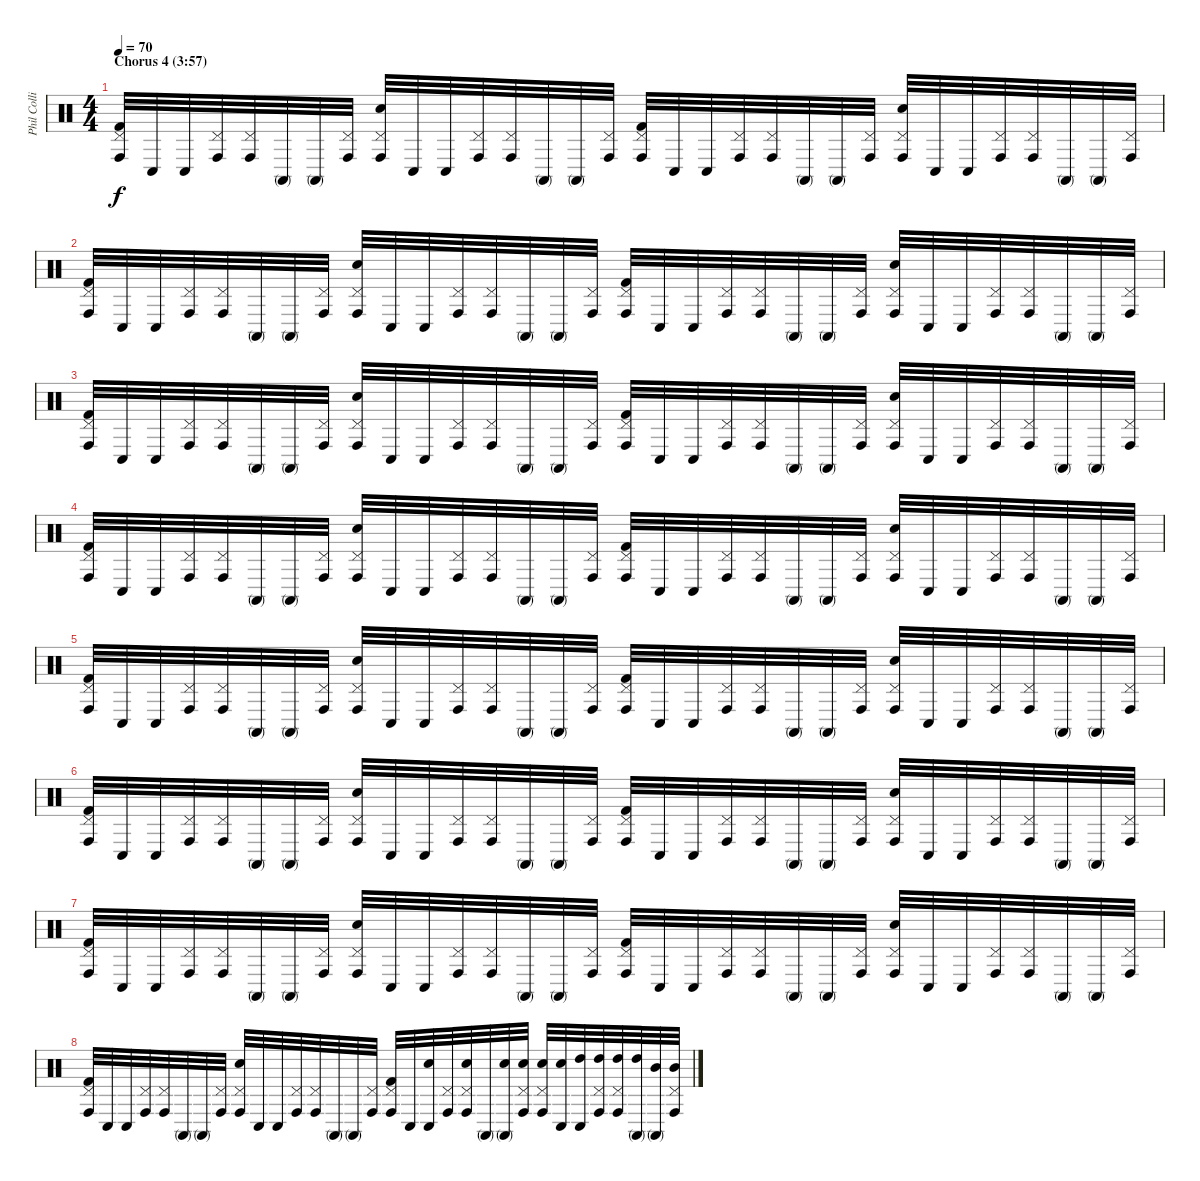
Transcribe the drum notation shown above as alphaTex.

\track ("Phil Collins (drums)" "Phil Colli") {instrument percussion}
\staff {score}
\articulation defaults
\ts (4 4)
\section ("" "Chorus 4 (3:57)")
\tempo 70
\clef neutral
\ks c
("Conga high (hit)" "Pedal Hi-Hat (hit)" "Kick (hit) 2").32{dy f} "Conga low (hit)".32 "Conga low (hit)".32 ("Conga high (hit)" "Pedal Hi-Hat (hit)").32 ("Conga high (hit)" "Pedal Hi-Hat (hit)").32 "Conga high (mute)".32 "Conga high (mute)".32 ("Conga high (hit)" "Pedal Hi-Hat (hit)").32 ("Conga high (hit)" "Pedal Hi-Hat (hit)" "Electric Snare (hit)").32 "Conga low (hit)".32 "Conga low (hit)".32 ("Conga high (hit)" "Pedal Hi-Hat (hit)").32 ("Conga high (hit)" "Pedal Hi-Hat (hit)").32 "Conga high (mute)".32 "Conga high (mute)".32 ("Conga high (hit)" "Pedal Hi-Hat (hit)").32 ("Conga high (hit)" "Pedal Hi-Hat (hit)" "Kick (hit) 2").32 "Conga low (hit)".32 "Conga low (hit)".32 ("Conga high (hit)" "Pedal Hi-Hat (hit)").32 ("Conga high (hit)" "Pedal Hi-Hat (hit)").32 "Conga high (mute)".32 "Conga high (mute)".32 ("Conga high (hit)" "Pedal Hi-Hat (hit)").32 ("Conga high (hit)" "Pedal Hi-Hat (hit)" "Electric Snare (hit)").32 "Conga low (hit)".32 "Conga low (hit)".32 ("Conga high (hit)" "Pedal Hi-Hat (hit)").32 ("Conga high (hit)" "Pedal Hi-Hat (hit)").32 "Conga high (mute)".32 "Conga high (mute)".32 ("Conga high (hit)" "Pedal Hi-Hat (hit)").32 |
("Conga high (hit)" "Pedal Hi-Hat (hit)" "Kick (hit) 2").32 "Conga low (hit)".32 "Conga low (hit)".32 ("Conga high (hit)" "Pedal Hi-Hat (hit)").32 ("Conga high (hit)" "Pedal Hi-Hat (hit)").32 "Conga high (mute)".32 "Conga high (mute)".32 ("Conga high (hit)" "Pedal Hi-Hat (hit)").32 ("Conga high (hit)" "Pedal Hi-Hat (hit)" "Electric Snare (hit)").32 "Conga low (hit)".32 "Conga low (hit)".32 ("Conga high (hit)" "Pedal Hi-Hat (hit)").32 ("Conga high (hit)" "Pedal Hi-Hat (hit)").32 "Conga high (mute)".32 "Conga high (mute)".32 ("Conga high (hit)" "Pedal Hi-Hat (hit)").32 ("Conga high (hit)" "Pedal Hi-Hat (hit)" "Kick (hit) 2").32 "Conga low (hit)".32 "Conga low (hit)".32 ("Conga high (hit)" "Pedal Hi-Hat (hit)").32 ("Conga high (hit)" "Pedal Hi-Hat (hit)").32 "Conga high (mute)".32 "Conga high (mute)".32 ("Conga high (hit)" "Pedal Hi-Hat (hit)").32 ("Conga high (hit)" "Pedal Hi-Hat (hit)" "Electric Snare (hit)").32 "Conga low (hit)".32 "Conga low (hit)".32 ("Conga high (hit)" "Pedal Hi-Hat (hit)").32 ("Conga high (hit)" "Pedal Hi-Hat (hit)").32 "Conga high (mute)".32 "Conga high (mute)".32 ("Conga high (hit)" "Pedal Hi-Hat (hit)").32 |
("Conga high (hit)" "Pedal Hi-Hat (hit)" "Kick (hit) 2").32 "Conga low (hit)".32 "Conga low (hit)".32 ("Conga high (hit)" "Pedal Hi-Hat (hit)").32 ("Conga high (hit)" "Pedal Hi-Hat (hit)").32 "Conga high (mute)".32 "Conga high (mute)".32 ("Conga high (hit)" "Pedal Hi-Hat (hit)").32 ("Conga high (hit)" "Pedal Hi-Hat (hit)" "Electric Snare (hit)").32 "Conga low (hit)".32 "Conga low (hit)".32 ("Conga high (hit)" "Pedal Hi-Hat (hit)").32 ("Conga high (hit)" "Pedal Hi-Hat (hit)").32 "Conga high (mute)".32 "Conga high (mute)".32 ("Conga high (hit)" "Pedal Hi-Hat (hit)").32 ("Conga high (hit)" "Pedal Hi-Hat (hit)" "Kick (hit) 2").32 "Conga low (hit)".32 "Conga low (hit)".32 ("Conga high (hit)" "Pedal Hi-Hat (hit)").32 ("Conga high (hit)" "Pedal Hi-Hat (hit)").32 "Conga high (mute)".32 "Conga high (mute)".32 ("Conga high (hit)" "Pedal Hi-Hat (hit)").32 ("Conga high (hit)" "Pedal Hi-Hat (hit)" "Electric Snare (hit)").32 "Conga low (hit)".32 "Conga low (hit)".32 ("Conga high (hit)" "Pedal Hi-Hat (hit)").32 ("Conga high (hit)" "Pedal Hi-Hat (hit)").32 "Conga high (mute)".32 "Conga high (mute)".32 ("Conga high (hit)" "Pedal Hi-Hat (hit)").32 |
("Conga high (hit)" "Pedal Hi-Hat (hit)" "Kick (hit) 2").32 "Conga low (hit)".32 "Conga low (hit)".32 ("Conga high (hit)" "Pedal Hi-Hat (hit)").32 ("Conga high (hit)" "Pedal Hi-Hat (hit)").32 "Conga high (mute)".32 "Conga high (mute)".32 ("Conga high (hit)" "Pedal Hi-Hat (hit)").32 ("Conga high (hit)" "Pedal Hi-Hat (hit)" "Electric Snare (hit)").32 "Conga low (hit)".32 "Conga low (hit)".32 ("Conga high (hit)" "Pedal Hi-Hat (hit)").32 ("Conga high (hit)" "Pedal Hi-Hat (hit)").32 "Conga high (mute)".32 "Conga high (mute)".32 ("Conga high (hit)" "Pedal Hi-Hat (hit)").32 ("Conga high (hit)" "Pedal Hi-Hat (hit)" "Kick (hit) 2").32 "Conga low (hit)".32 "Conga low (hit)".32 ("Conga high (hit)" "Pedal Hi-Hat (hit)").32 ("Conga high (hit)" "Pedal Hi-Hat (hit)").32 "Conga high (mute)".32 "Conga high (mute)".32 ("Conga high (hit)" "Pedal Hi-Hat (hit)").32 ("Conga high (hit)" "Pedal Hi-Hat (hit)" "Electric Snare (hit)").32 "Conga low (hit)".32 "Conga low (hit)".32 ("Conga high (hit)" "Pedal Hi-Hat (hit)").32 ("Conga high (hit)" "Pedal Hi-Hat (hit)").32 "Conga high (mute)".32 "Conga high (mute)".32 ("Conga high (hit)" "Pedal Hi-Hat (hit)").32 |
("Conga high (hit)" "Pedal Hi-Hat (hit)" "Kick (hit) 2").32 "Conga low (hit)".32 "Conga low (hit)".32 ("Conga high (hit)" "Pedal Hi-Hat (hit)").32 ("Conga high (hit)" "Pedal Hi-Hat (hit)").32 "Conga high (mute)".32 "Conga high (mute)".32 ("Conga high (hit)" "Pedal Hi-Hat (hit)").32 ("Conga high (hit)" "Pedal Hi-Hat (hit)" "Electric Snare (hit)").32 "Conga low (hit)".32 "Conga low (hit)".32 ("Conga high (hit)" "Pedal Hi-Hat (hit)").32 ("Conga high (hit)" "Pedal Hi-Hat (hit)").32 "Conga high (mute)".32 "Conga high (mute)".32 ("Conga high (hit)" "Pedal Hi-Hat (hit)").32 ("Conga high (hit)" "Pedal Hi-Hat (hit)" "Kick (hit) 2").32 "Conga low (hit)".32 "Conga low (hit)".32 ("Conga high (hit)" "Pedal Hi-Hat (hit)").32 ("Conga high (hit)" "Pedal Hi-Hat (hit)").32 "Conga high (mute)".32 "Conga high (mute)".32 ("Conga high (hit)" "Pedal Hi-Hat (hit)").32 ("Conga high (hit)" "Pedal Hi-Hat (hit)" "Electric Snare (hit)").32 "Conga low (hit)".32 "Conga low (hit)".32 ("Conga high (hit)" "Pedal Hi-Hat (hit)").32 ("Conga high (hit)" "Pedal Hi-Hat (hit)").32 "Conga high (mute)".32 "Conga high (mute)".32 ("Conga high (hit)" "Pedal Hi-Hat (hit)").32 |
("Conga high (hit)" "Pedal Hi-Hat (hit)" "Kick (hit) 2").32 "Conga low (hit)".32 "Conga low (hit)".32 ("Conga high (hit)" "Pedal Hi-Hat (hit)").32 ("Conga high (hit)" "Pedal Hi-Hat (hit)").32 "Conga high (mute)".32 "Conga high (mute)".32 ("Conga high (hit)" "Pedal Hi-Hat (hit)").32 ("Conga high (hit)" "Pedal Hi-Hat (hit)" "Electric Snare (hit)").32 "Conga low (hit)".32 "Conga low (hit)".32 ("Conga high (hit)" "Pedal Hi-Hat (hit)").32 ("Conga high (hit)" "Pedal Hi-Hat (hit)").32 "Conga high (mute)".32 "Conga high (mute)".32 ("Conga high (hit)" "Pedal Hi-Hat (hit)").32 ("Conga high (hit)" "Pedal Hi-Hat (hit)" "Kick (hit) 2").32 "Conga low (hit)".32 "Conga low (hit)".32 ("Conga high (hit)" "Pedal Hi-Hat (hit)").32 ("Conga high (hit)" "Pedal Hi-Hat (hit)").32 "Conga high (mute)".32 "Conga high (mute)".32 ("Conga high (hit)" "Pedal Hi-Hat (hit)").32 ("Conga high (hit)" "Pedal Hi-Hat (hit)" "Electric Snare (hit)").32 "Conga low (hit)".32 "Conga low (hit)".32 ("Conga high (hit)" "Pedal Hi-Hat (hit)").32 ("Conga high (hit)" "Pedal Hi-Hat (hit)").32 "Conga high (mute)".32 "Conga high (mute)".32 ("Conga high (hit)" "Pedal Hi-Hat (hit)").32 |
("Conga high (hit)" "Pedal Hi-Hat (hit)" "Kick (hit) 2").32 "Conga low (hit)".32 "Conga low (hit)".32 ("Conga high (hit)" "Pedal Hi-Hat (hit)").32 ("Conga high (hit)" "Pedal Hi-Hat (hit)").32 "Conga high (mute)".32 "Conga high (mute)".32 ("Conga high (hit)" "Pedal Hi-Hat (hit)").32 ("Conga high (hit)" "Pedal Hi-Hat (hit)" "Electric Snare (hit)").32 "Conga low (hit)".32 "Conga low (hit)".32 ("Conga high (hit)" "Pedal Hi-Hat (hit)").32 ("Conga high (hit)" "Pedal Hi-Hat (hit)").32 "Conga high (mute)".32 "Conga high (mute)".32 ("Conga high (hit)" "Pedal Hi-Hat (hit)").32 ("Conga high (hit)" "Pedal Hi-Hat (hit)" "Kick (hit) 2").32 "Conga low (hit)".32 "Conga low (hit)".32 ("Conga high (hit)" "Pedal Hi-Hat (hit)").32 ("Conga high (hit)" "Pedal Hi-Hat (hit)").32 "Conga high (mute)".32 "Conga high (mute)".32 ("Conga high (hit)" "Pedal Hi-Hat (hit)").32 ("Conga high (hit)" "Pedal Hi-Hat (hit)" "Electric Snare (hit)").32 "Conga low (hit)".32 "Conga low (hit)".32 ("Conga high (hit)" "Pedal Hi-Hat (hit)").32 ("Conga high (hit)" "Pedal Hi-Hat (hit)").32 "Conga high (mute)".32 "Conga high (mute)".32 ("Conga high (hit)" "Pedal Hi-Hat (hit)").32 |
("Conga high (hit)" "Pedal Hi-Hat (hit)" "Kick (hit) 2").32 "Conga low (hit)".32 "Conga low (hit)".32 ("Conga high (hit)" "Pedal Hi-Hat (hit)").32 ("Conga high (hit)" "Pedal Hi-Hat (hit)").32 "Conga high (mute)".32 "Conga high (mute)".32 ("Conga high (hit)" "Pedal Hi-Hat (hit)").32 ("Conga high (hit)" "Pedal Hi-Hat (hit)" "Electric Snare (hit)").32 "Conga low (hit)".32 "Conga low (hit)".32 ("Conga high (hit)" "Pedal Hi-Hat (hit)").32 ("Conga high (hit)" "Pedal Hi-Hat (hit)").32 "Conga high (mute)".32 "Conga high (mute)".32 ("Conga high (hit)" "Pedal Hi-Hat (hit)").32 ("Conga high (hit)" "Pedal Hi-Hat (hit)" "Kick (hit) 2").32 "Conga low (hit)".32 ("Conga low (hit)" "Electric Snare (hit)").32 ("Conga high (hit)" "Pedal Hi-Hat (hit)").32 ("Conga high (hit)" "Pedal Hi-Hat (hit)" "Electric Snare (hit)").32 "Conga high (mute)".32 ("Conga high (mute)" "Electric Snare (hit)").32 ("Conga high (hit)" "Pedal Hi-Hat (hit)" "Electric Snare (hit)").32 ("Conga high (hit)" "Pedal Hi-Hat (hit)" "Electric Snare (hit)").32 ("Conga low (hit)" "Electric Snare (hit)").32 ("Conga low (hit)" "High Tom (hit)").32 ("Conga high (hit)" "Pedal Hi-Hat (hit)" "High Tom (hit)").32 ("Conga high (hit)" "Pedal Hi-Hat (hit)" "High Tom (hit)").32 ("Conga high (mute)" "High Tom (hit)").32 ("Conga high (mute)" "Mid Tom (hit)").32 ("Conga high (hit)" "Pedal Hi-Hat (hit)" "Mid Tom (hit)").32
